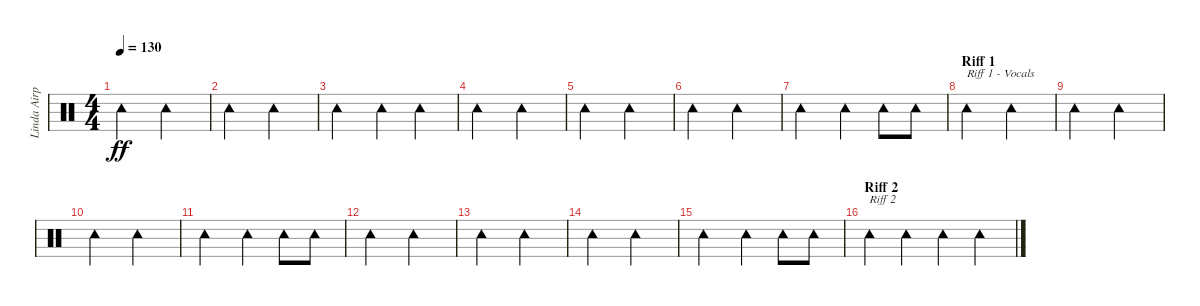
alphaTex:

\track ("Linda Airplane" "Linda Airp") {instrument percussion}
\staff {score}
\articulation defaults
\ts (4 4)
\tempo 130
\clef neutral
\ks c "Tambourine (hit)".2{dy ff} "Tambourine (hit)".2
|
"Tambourine (hit)".2 "Tambourine (hit)".2 |
"Tambourine (hit)".2 "Tambourine (hit)".4 "Tambourine (hit)".4 |
"Tambourine (hit)".2 "Tambourine (hit)".2 |
"Tambourine (hit)".2 "Tambourine (hit)".2 |
"Tambourine (hit)".2 "Tambourine (hit)".2 |
"Tambourine (hit)".2 "Tambourine (hit)".4 "Tambourine (hit)".8 "Tambourine (hit)".8 |
\section ("" "Riff 1")
"Tambourine (hit)".2{txt "Riff 1 - Vocals"} "Tambourine (hit)".2 |
"Tambourine (hit)".2 "Tambourine (hit)".2 |
"Tambourine (hit)".2 "Tambourine (hit)".2 |
"Tambourine (hit)".2 "Tambourine (hit)".4 "Tambourine (hit)".8 "Tambourine (hit)".8 |
"Tambourine (hit)".2 "Tambourine (hit)".2 |
"Tambourine (hit)".2 "Tambourine (hit)".2 |
"Tambourine (hit)".2 "Tambourine (hit)".2 |
"Tambourine (hit)".2 "Tambourine (hit)".4 "Tambourine (hit)".8 "Tambourine (hit)".8 |
\section ("" "Riff 2")
"Tambourine (hit)".4{txt "Riff 2"} "Tambourine (hit)".4 "Tambourine (hit)".4 "Tambourine (hit)".4
